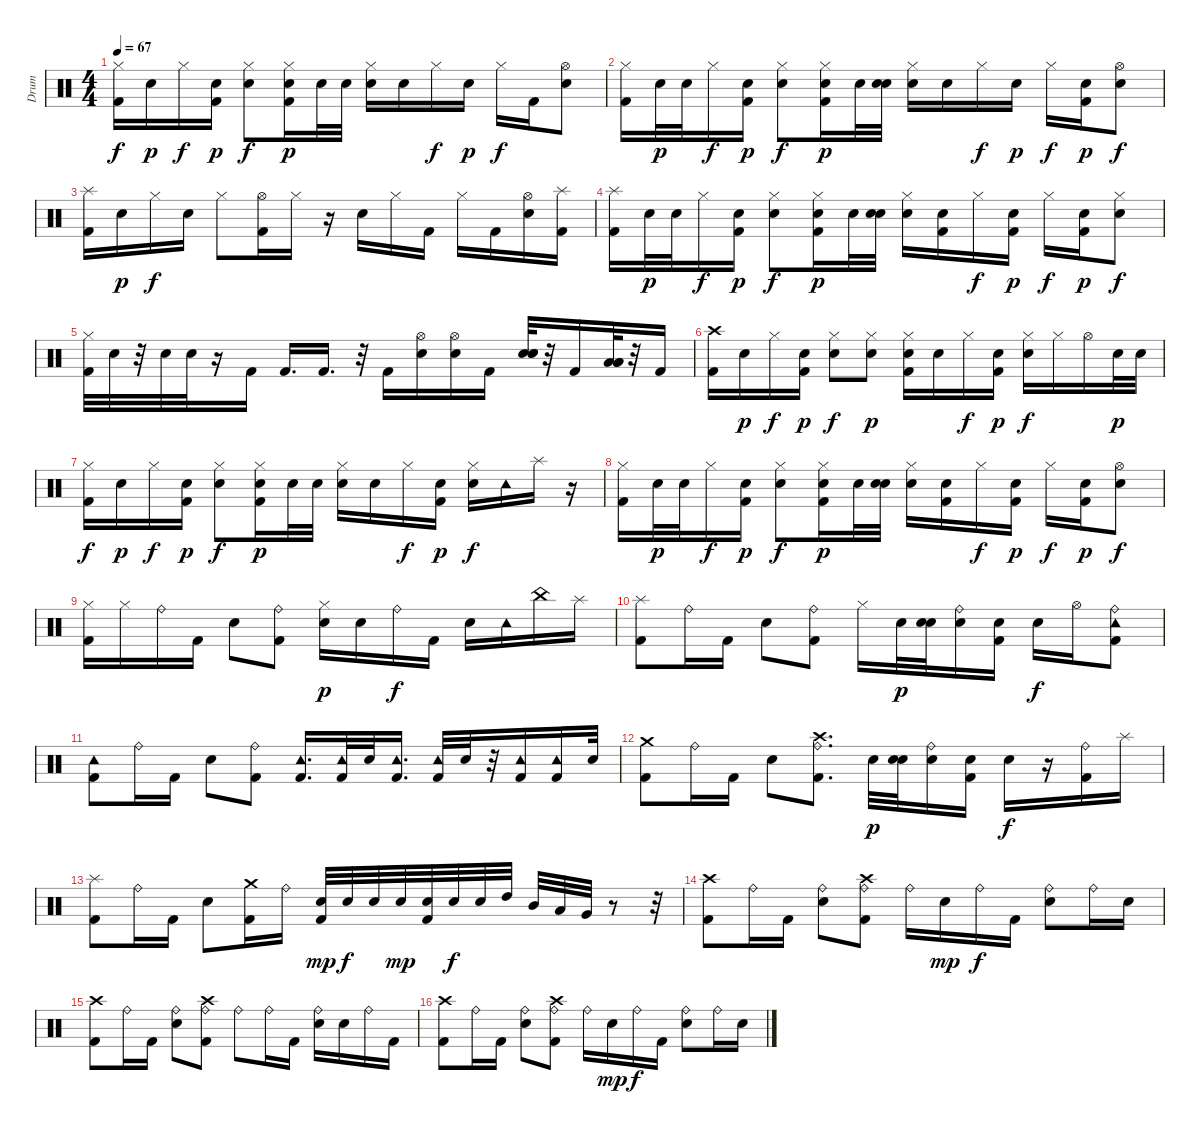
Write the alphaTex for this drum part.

\track ("Drum" "Drum") {instrument percussion}
\staff {score}
\articulation defaults
\ts (4 4)
\tempo 67
\clef neutral
\ks c
("Kick (hit) 2" "Hi-Hat (closed)").16{dy f} "Electric Snare (hit)".16{dy p} "Hi-Hat (closed)".16{dy f} ("Kick (hit) 2" "Electric Snare (hit)").16{dy p} ("Hi-Hat (closed)" "Electric Snare (hit)").8{dy f} ("Hi-Hat (closed)" "Kick (hit) 2" "Electric Snare (hit)").16{dy p} "Electric Snare (hit)".32 "Electric Snare (hit)".32 ("Hi-Hat (closed)" "Electric Snare (hit)").16 "Electric Snare (hit)".16 "Hi-Hat (closed)".16{dy f} "Electric Snare (hit)".16{dy p} "Hi-Hat (closed)".16{dy f} "Kick (hit) 2".16 ("Electric Snare (hit)" "Hi-Hat (open)").8 |
("Hi-Hat (closed)" "Kick (hit) 2").16 "Electric Snare (hit)".32{dy p} "Electric Snare (hit)".32 "Hi-Hat (closed)".16{dy f} ("Kick (hit) 2" "Electric Snare (hit)").16{dy p} ("Hi-Hat (closed)" "Electric Snare (hit)").8{dy f} ("Hi-Hat (closed)" "Kick (hit) 2" "Electric Snare (hit)").16{dy p} "Electric Snare (hit)".32 ("Electric Snare (hit)" "Electric Snare (hit)").32 ("Hi-Hat (closed)" "Electric Snare (hit)").16 "Electric Snare (hit)".16 "Hi-Hat (closed)".16{dy f} "Electric Snare (hit)".16{dy p} "Hi-Hat (closed)".16{dy f} ("Kick (hit) 2" "Electric Snare (hit)").16{dy p} ("Hi-Hat (open)" "Electric Snare (hit)").8{dy f} |
("Kick (hit) 2" "Splash (hit)").16 "Electric Snare (hit)".16{dy p} "Hi-Hat (closed)".16{dy f} "Electric Snare (hit)".16 "Hi-Hat (closed)".8 ("Kick (hit) 2" "Hi-Hat (open)").16 "Hi-Hat (closed)".16 r.16 "Electric Snare (hit)".16 "Hi-Hat (closed)".16 "Kick (hit) 2".16 "Hi-Hat (closed)".16 "Kick (hit) 2".16 ("Electric Snare (hit)" "Hi-Hat (open)").16 ("Kick (hit) 2" "Splash (hit)").16 |
("Kick (hit) 2" "Splash (hit)").16 "Electric Snare (hit)".32{dy p} "Electric Snare (hit)".32 "Hi-Hat (closed)".16{dy f} ("Kick (hit) 2" "Electric Snare (hit)").16{dy p} ("Hi-Hat (closed)" "Electric Snare (hit)").8{dy f} ("Hi-Hat (closed)" "Kick (hit) 2" "Electric Snare (hit)").16{dy p} "Electric Snare (hit)".32 ("Electric Snare (hit)" "Electric Snare (hit)").32 ("Hi-Hat (closed)" "Electric Snare (hit)").16 ("Kick (hit) 2" "Electric Snare (hit)").16 "Hi-Hat (closed)".16{dy f} ("Kick (hit) 2" "Electric Snare (hit)").16{dy p} "Hi-Hat (closed)".16{dy f} ("Kick (hit) 2" "Electric Snare (hit)").16{dy p} ("Electric Snare (hit)" "Hi-Hat (closed)").8{dy f} |
("Kick (hit) 2" "Hi-Hat (closed)").32 "Electric Snare (hit)".32 r.32 "Electric Snare (hit)".32 "Electric Snare (hit)".32 r.16 "Kick (hit) 2".16 "Kick (hit) 2".16{d} "Kick (hit) 2".16{d} r.32 "Kick (hit) 2".16 ("Electric Snare (hit)" "Hi-Hat (open)").16 ("Electric Snare (hit)" "Hi-Hat (open)").16 "Kick (hit) 2".16 ("Electric Snare (hit)" "Electric Snare (hit)" "Electric Snare (hit)").32 r.32 "Kick (hit) 2".16 ("Low Tom (hit)" "Low Tom (hit)" "Low Tom (hit)").32 r.32 "Kick (hit) 2".16 |
("Crash high (hit)" "Kick (hit) 2").16 "Electric Snare (hit)".16{dy p} "Hi-Hat (closed)".16{dy f} ("Kick (hit) 2" "Electric Snare (hit)").16{dy p} ("Hi-Hat (closed)" "Electric Snare (hit)").8{dy f} ("Hi-Hat (closed)" "Electric Snare (hit)").8{dy p} ("Hi-Hat (closed)" "Kick (hit) 2" "Electric Snare (hit)").16 "Electric Snare (hit)".16 "Hi-Hat (closed)".16{dy f} ("Kick (hit) 2" "Electric Snare (hit)").16{dy p} ("Electric Snare (hit)" "Hi-Hat (closed)").16{dy f} "Hi-Hat (closed)".16 "Hi-Hat (open)".16 "Electric Snare (hit)".32{dy p} "Electric Snare (hit)".32 |
("Kick (hit) 2" "Hi-Hat (closed)").16{dy f} "Electric Snare (hit)".16{dy p} "Hi-Hat (closed)".16{dy f} ("Kick (hit) 2" "Electric Snare (hit)").16{dy p} ("Hi-Hat (closed)" "Electric Snare (hit)").8{dy f} ("Hi-Hat (closed)" "Kick (hit) 2" "Electric Snare (hit)").16{dy p} "Electric Snare (hit)".32 "Electric Snare (hit)".32 ("Hi-Hat (closed)" "Electric Snare (hit)").16 "Electric Snare (hit)".16 "Hi-Hat (closed)".16{dy f} ("Kick (hit) 2" "Electric Snare (hit)").16{dy p} ("Electric Snare (hit)" "Hi-Hat (closed)").16{dy f} "Tambourine (hit)".16 "Splash (hit)".16 r.16 |
("Hi-Hat (closed)" "Kick (hit) 2").16 "Electric Snare (hit)".32{dy p} "Electric Snare (hit)".32 "Hi-Hat (closed)".16{dy f} ("Kick (hit) 2" "Electric Snare (hit)").16{dy p} ("Hi-Hat (closed)" "Electric Snare (hit)").8{dy f} ("Hi-Hat (closed)" "Kick (hit) 2" "Electric Snare (hit)").16{dy p} "Electric Snare (hit)".32 ("Electric Snare (hit)" "Electric Snare (hit)").32 ("Hi-Hat (closed)" "Electric Snare (hit)").16 ("Kick (hit) 2" "Electric Snare (hit)").16 "Hi-Hat (closed)".16{dy f} ("Kick (hit) 2" "Electric Snare (hit)").16{dy p} "Hi-Hat (closed)".16{dy f} ("Kick (hit) 2" "Electric Snare (hit)").16{dy p} ("Hi-Hat (open)" "Electric Snare (hit)").8{dy f} |
("Hi-Hat (closed)" "Kick (hit) 2").16 "Hi-Hat (closed)".16 "Ride (bell)".16 "Kick (hit) 2".16 "Electric Snare (hit)".8 ("Kick (hit) 2" "Ride (bell)").8 ("Hi-Hat (closed)" "Electric Snare (hit)").16{dy p} "Electric Snare (hit)".16 "Ride (bell)".16{dy f} "Kick (hit) 2".16 "Electric Snare (hit)".16 "Tambourine (hit)".16 "China (hit)".16 "Splash (hit)".16 |
("Splash (hit)" "Kick (hit) 2").8 "Ride (bell)".16 "Kick (hit) 2".16 "Electric Snare (hit)".8 ("Kick (hit) 2" "Ride (bell)").8 "Hi-Hat (closed)".16 "Electric Snare (hit)".32{dy p} ("Electric Snare (hit)" "Electric Snare (hit)").32 ("Ride (bell)" "Electric Snare (hit)").16 ("Kick (hit) 2" "Electric Snare (hit)").16 "Electric Snare (hit)".16{dy f} "Hi-Hat (open)".16 ("Ride (bell)" "Tambourine (hit)" "Kick (hit) 2").8 |
("Kick (hit) 2" "Tambourine (hit)").8 "Ride (bell)".16 "Kick (hit) 2".16 "Electric Snare (hit)".8 ("Ride (bell)" "Kick (hit) 2").8 ("Kick (hit) 2" "Tambourine (hit)").16{d} ("Kick (hit) 2" "Tambourine (hit)").32 "Electric Snare (hit)".32 ("Kick (hit) 2" "Tambourine (hit)").16{d} ("Kick (hit) 2" "Tambourine (hit)").32 "Electric Snare (hit)".32 r.32 ("Kick (hit) 2" "Tambourine (hit)").16 ("Kick (hit) 2" "Tambourine (hit)").16 "Electric Snare (hit)".32 |
("Kick (hit) 2" "Crash medium (hit)").8 "Ride (bell)".16 "Kick (hit) 2".16 "Electric Snare (hit)".8 ("Ride (bell)" "Kick (hit) 2" "Crash high (hit)").8{d} "Electric Snare (hit)".32{dy p} ("Electric Snare (hit)" "Electric Snare (hit)").32 ("Ride (bell)" "Electric Snare (hit)").16 ("Kick (hit) 2" "Electric Snare (hit)").16 "Electric Snare (hit)".16{dy f} r.16 ("Ride (bell)" "Kick (hit) 2").16 "Splash (hit)".16 |
("Kick (hit) 2" "Splash (hit)").8 "Ride (bell)".16 "Kick (hit) 2".16 "Electric Snare (hit)".8 ("Kick (hit) 2" "Crash medium (hit)").16 "Ride (bell)".16 ("Kick (hit) 2" "Electric Snare (hit)").32{dy mp} "Electric Snare (hit)".32{dy f} "Electric Snare (hit)".32 "Electric Snare (hit)".32{dy mp} ("Kick (hit) 2" "Electric Snare (hit)").32 "Electric Snare (hit)".32{dy f} "Electric Snare (hit)".32 "High Tom (hit)".32 "Mid Tom (hit)".32 "Low Tom (hit)".32 "Very Low Tom (hit)".32 r.8 r.32 |
("Kick (hit) 2" "Crash high (hit)").8 "Ride (bell)".16 "Kick (hit) 2".16 ("Electric Snare (hit)" "Ride (bell)").8 ("Kick (hit) 2" "Ride (bell)" "Crash high (hit)").8 "Ride (bell)".16 "Electric Snare (hit)".16{dy mp} "Ride (bell)".16{dy f} "Kick (hit) 2".16 ("Electric Snare (hit)" "Ride (bell)").8 "Ride (bell)".16 "Electric Snare (hit)".16 |
("Crash high (hit)" "Kick (hit) 2").8 "Ride (bell)".16 "Kick (hit) 2".16 ("Electric Snare (hit)" "Ride (bell)").8 ("Kick (hit) 2" "Ride (bell)" "Crash high (hit)").8 "Ride (bell)".8 "Ride (bell)".16 "Kick (hit) 2".16 ("Electric Snare (hit)" "Ride (bell)").16 "Electric Snare (hit)".16 "Ride (bell)".16 "Kick (hit) 2".16 |
("Crash high (hit)" "Kick (hit) 2").8 "Ride (bell)".16 "Kick (hit) 2".16 ("Electric Snare (hit)" "Ride (bell)").8 ("Kick (hit) 2" "Ride (bell)" "Crash high (hit)").8 "Ride (bell)".16 "Electric Snare (hit)".16{dy mp} "Ride (bell)".16{dy f} "Kick (hit) 2".16 ("Electric Snare (hit)" "Ride (bell)").8 "Ride (bell)".16 "Electric Snare (hit)".16
